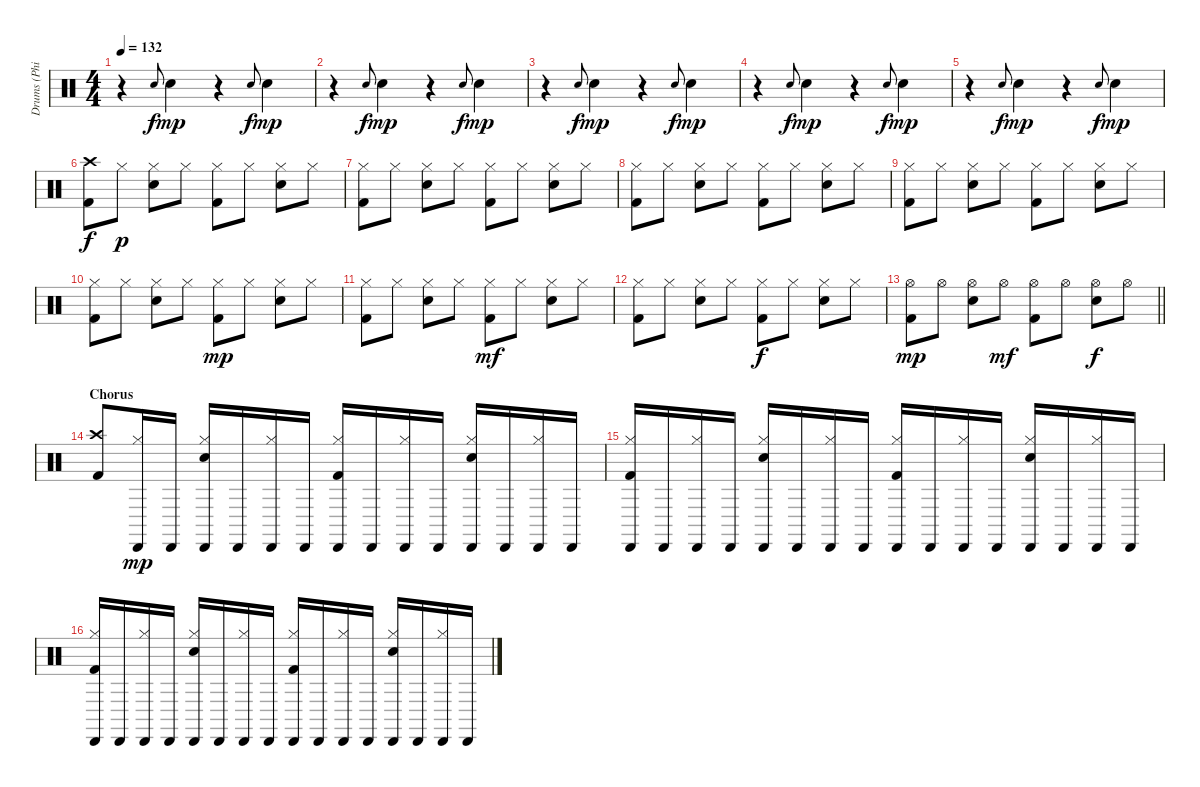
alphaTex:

\track ("Drums (Phil Rudd)" "Drums (Phi") {instrument percussion}
\staff {score}
\articulation defaults
\ts (4 4)
\tempo 132
\clef neutral
\ks c
r.4{dy mp} "Snare (hit) 2".8{gr onbeat dy f} "Snare (hit) 2".4{dy mp} r.4 "Snare (hit) 2".8{gr onbeat dy f} "Snare (hit) 2".4{dy mp} |
r.4 "Snare (hit) 2".8{gr onbeat dy f} "Snare (hit) 2".4{dy mp} r.4 "Snare (hit) 2".8{gr onbeat dy f} "Snare (hit) 2".4{dy mp} |
r.4 "Snare (hit) 2".8{gr onbeat dy f} "Snare (hit) 2".4{dy mp} r.4 "Snare (hit) 2".8{gr onbeat dy f} "Snare (hit) 2".4{dy mp} |
r.4 "Snare (hit) 2".8{gr onbeat dy f} "Snare (hit) 2".4{dy mp} r.4 "Snare (hit) 2".8{gr onbeat dy f} "Snare (hit) 2".4{dy mp} |
r.4 "Snare (hit) 2".8{gr onbeat dy f} "Snare (hit) 2".4{dy mp} r.4 "Snare (hit) 2".8{gr onbeat dy f} "Snare (hit) 2".4{dy mp} |
("Crash high (hit)" "Kick (hit) 2").8{dy f} "Hi-Hat (closed)".8{dy p} ("Hi-Hat (closed)" "Snare (hit) 2").8 "Hi-Hat (closed)".8 ("Hi-Hat (closed)" "Kick (hit) 2").8 "Hi-Hat (closed)".8 ("Hi-Hat (closed)" "Snare (hit) 2").8 "Hi-Hat (closed)".8 |
("Hi-Hat (closed)" "Kick (hit) 2").8 "Hi-Hat (closed)".8 ("Hi-Hat (closed)" "Snare (hit) 2").8 "Hi-Hat (closed)".8 ("Hi-Hat (closed)" "Kick (hit) 2").8 "Hi-Hat (closed)".8 ("Hi-Hat (closed)" "Snare (hit) 2").8 "Hi-Hat (closed)".8 |
("Hi-Hat (closed)" "Kick (hit) 2").8 "Hi-Hat (closed)".8 ("Hi-Hat (closed)" "Snare (hit) 2").8 "Hi-Hat (closed)".8 ("Hi-Hat (closed)" "Kick (hit) 2").8 "Hi-Hat (closed)".8 ("Hi-Hat (closed)" "Snare (hit) 2").8 "Hi-Hat (closed)".8 |
("Hi-Hat (closed)" "Kick (hit) 2").8 "Hi-Hat (closed)".8 ("Hi-Hat (closed)" "Snare (hit) 2").8 "Hi-Hat (closed)".8 ("Hi-Hat (closed)" "Kick (hit) 2").8 "Hi-Hat (closed)".8 ("Hi-Hat (closed)" "Snare (hit) 2").8 "Hi-Hat (closed)".8 |
("Hi-Hat (closed)" "Kick (hit) 2").8 "Hi-Hat (closed)".8 ("Hi-Hat (closed)" "Snare (hit) 2").8 "Hi-Hat (closed)".8 ("Hi-Hat (closed)" "Kick (hit) 2").8{dy mp} "Hi-Hat (closed)".8 ("Hi-Hat (closed)" "Snare (hit) 2").8 "Hi-Hat (closed)".8 |
("Hi-Hat (closed)" "Kick (hit) 2").8 "Hi-Hat (closed)".8 ("Hi-Hat (closed)" "Snare (hit) 2").8 "Hi-Hat (closed)".8 ("Hi-Hat (closed)" "Kick (hit) 2").8{dy mf} "Hi-Hat (closed)".8 ("Hi-Hat (closed)" "Snare (hit) 2").8 "Hi-Hat (closed)".8 |
("Hi-Hat (closed)" "Kick (hit) 2").8 "Hi-Hat (closed)".8 ("Hi-Hat (closed)" "Snare (hit) 2").8 "Hi-Hat (closed)".8 ("Hi-Hat (closed)" "Kick (hit) 2").8{dy f} "Hi-Hat (closed)".8 ("Hi-Hat (closed)" "Snare (hit) 2").8 "Hi-Hat (closed)".8 |
\barLineRight lightlight
("Hi-Hat (open)" "Kick (hit) 2").8{dy mp} "Hi-Hat (open)".8 ("Hi-Hat (open)" "Snare (hit) 2").8 "Hi-Hat (open)".8{dy mf} ("Hi-Hat (open)" "Kick (hit) 2").8 "Hi-Hat (open)".8 ("Hi-Hat (open)" "Snare (hit) 2").8{dy f} "Hi-Hat (open)".8 |
\section ("" "Chorus")
("Crash high (hit)" "Kick (hit) 2").8 ("Hi-Hat (closed)" "Cabasa (hit)").16{dy mp} "Cabasa (hit)".16 ("Hi-Hat (closed)" "Cabasa (hit)" "Snare (hit) 2").16 "Cabasa (hit)".16 ("Hi-Hat (closed)" "Cabasa (hit)").16 "Cabasa (hit)".16 ("Hi-Hat (closed)" "Cabasa (hit)" "Kick (hit) 2").16 "Cabasa (hit)".16 ("Hi-Hat (closed)" "Cabasa (hit)").16 "Cabasa (hit)".16 ("Hi-Hat (closed)" "Cabasa (hit)" "Snare (hit) 2").16 "Cabasa (hit)".16 ("Hi-Hat (closed)" "Cabasa (hit)").16 "Cabasa (hit)".16 |
("Hi-Hat (closed)" "Cabasa (hit)" "Kick (hit) 2").16 "Cabasa (hit)".16 ("Hi-Hat (closed)" "Cabasa (hit)").16 "Cabasa (hit)".16 ("Hi-Hat (closed)" "Cabasa (hit)" "Snare (hit) 2").16 "Cabasa (hit)".16 ("Hi-Hat (closed)" "Cabasa (hit)").16 "Cabasa (hit)".16 ("Hi-Hat (closed)" "Cabasa (hit)" "Kick (hit) 2").16 "Cabasa (hit)".16 ("Hi-Hat (closed)" "Cabasa (hit)").16 "Cabasa (hit)".16 ("Hi-Hat (closed)" "Cabasa (hit)" "Snare (hit) 2").16 "Cabasa (hit)".16 ("Hi-Hat (closed)" "Cabasa (hit)").16 "Cabasa (hit)".16 |
("Hi-Hat (closed)" "Cabasa (hit)" "Kick (hit) 2").16 "Cabasa (hit)".16 ("Hi-Hat (closed)" "Cabasa (hit)").16 "Cabasa (hit)".16 ("Hi-Hat (closed)" "Cabasa (hit)" "Snare (hit) 2").16 "Cabasa (hit)".16 ("Hi-Hat (closed)" "Cabasa (hit)").16 "Cabasa (hit)".16 ("Hi-Hat (closed)" "Cabasa (hit)" "Kick (hit) 2").16 "Cabasa (hit)".16 ("Hi-Hat (closed)" "Cabasa (hit)").16 "Cabasa (hit)".16 ("Hi-Hat (closed)" "Cabasa (hit)" "Snare (hit) 2").16 "Cabasa (hit)".16 ("Hi-Hat (closed)" "Cabasa (hit)").16 "Cabasa (hit)".16
